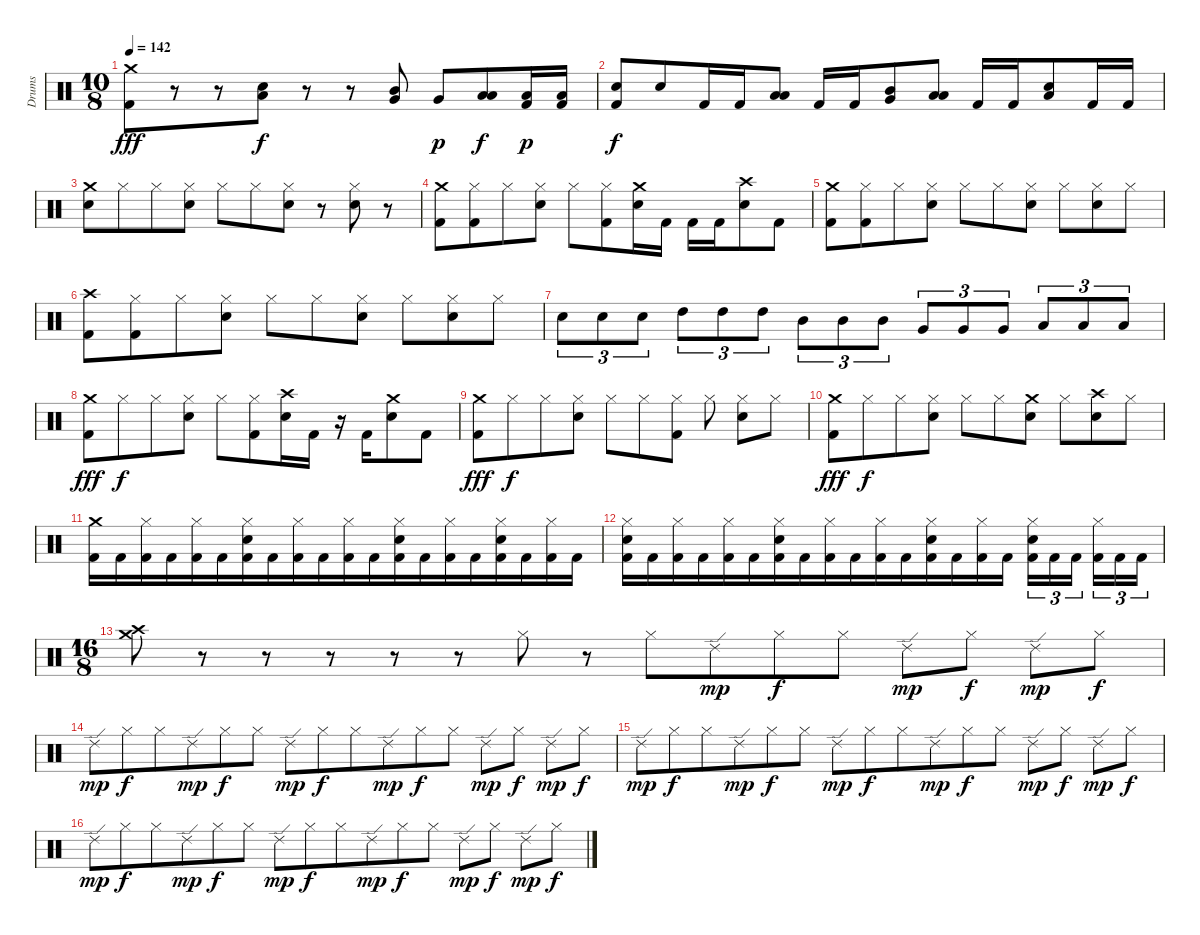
\track ("Drums" "Drums") {instrument percussion}
\staff {score}
\articulation defaults
\ts (10 8)
\tempo 142
\clef neutral
\ks c
("Crash medium (hit)" "Kick (hit) 2").8{dy fff} r.8 r.8 ("Electric Snare (hit)" "Low Floor Tom (hit)").8{dy f} r.8 r.8 ("Mid Tom (hit)" "Very Low Tom (hit)").8 "Very Low Tom (hit)".8{dy p} ("Low Tom (hit)" "Low Floor Tom (hit)").8{dy f} ("Low Floor Tom (hit)" "Kick (hit) 2").16{dy p} ("Low Floor Tom (hit)" "Kick (hit) 2").16 |
("Electric Snare (hit)" "Kick (hit) 2").8{dy f} "Electric Snare (hit)".8 "Kick (hit) 2".16 "Kick (hit) 2".16 ("Low Tom (hit)" "Low Floor Tom (hit)").8 "Kick (hit) 2".16 "Kick (hit) 2".16 ("Mid Tom (hit)" "Very Low Tom (hit)").8 ("Low Tom (hit)" "Low Floor Tom (hit)").8 "Kick (hit) 2".16 "Kick (hit) 2".16 ("Electric Snare (hit)" "Low Floor Tom (hit)").8 "Kick (hit) 2".16 "Kick (hit) 2".16 |
("Crash medium (hit)" "Electric Snare (hit)").8 "Hi-Hat (closed)".8 "Hi-Hat (closed)".8 ("Hi-Hat (closed)" "Electric Snare (hit)").8 "Hi-Hat (closed)".8 "Hi-Hat (closed)".8 ("Hi-Hat (closed)" "Electric Snare (hit)").8 r.8 ("Hi-Hat (closed)" "Electric Snare (hit)").8 r.8 |
("Crash medium (hit)" "Kick (hit) 2").8 ("Hi-Hat (closed)" "Kick (hit) 2").8 "Hi-Hat (closed)".8 ("Hi-Hat (closed)" "Electric Snare (hit)").8 "Hi-Hat (closed)".8 ("Hi-Hat (closed)" "Kick (hit) 2").8 ("Crash medium (hit)" "Electric Snare (hit)").16 "Kick (hit) 2".16 "Kick (hit) 2".16 "Kick (hit) 2".16 ("Crash high (hit)" "Electric Snare (hit)").8 "Kick (hit) 2".8 |
("Crash medium (hit)" "Kick (hit) 2").8 ("Hi-Hat (closed)" "Kick (hit) 2").8 "Hi-Hat (closed)".8 ("Hi-Hat (closed)" "Electric Snare (hit)").8 "Hi-Hat (closed)".8 "Hi-Hat (closed)".8 ("Hi-Hat (closed)" "Electric Snare (hit)").8 "Hi-Hat (closed)".8 ("Hi-Hat (closed)" "Electric Snare (hit)").8 "Hi-Hat (closed)".8 |
("Crash high (hit)" "Kick (hit) 2").8 ("Hi-Hat (closed)" "Kick (hit) 2").8 "Hi-Hat (closed)".8 ("Hi-Hat (closed)" "Electric Snare (hit)").8 "Hi-Hat (closed)".8 "Hi-Hat (closed)".8 ("Hi-Hat (closed)" "Electric Snare (hit)").8 "Hi-Hat (closed)".8 ("Hi-Hat (closed)" "Electric Snare (hit)").8 "Hi-Hat (closed)".8 |
"Electric Snare (hit)".8{tu (3 2)} "Electric Snare (hit)".8{tu (3 2) beam merge} "Electric Snare (hit)".8{tu (3 2)} "High Tom (hit)".8{tu (3 2)} "High Tom (hit)".8{tu (3 2) beam merge} "High Tom (hit)".8{tu (3 2)} "Mid Tom (hit)".8{tu (3 2)} "Mid Tom (hit)".8{tu (3 2) beam merge} "Mid Tom (hit)".8{tu (3 2)} "Very Low Tom (hit)".8{tu (3 2)} "Very Low Tom (hit)".8{tu (3 2) beam merge} "Very Low Tom (hit)".8{tu (3 2)} "Low Floor Tom (hit)".8{tu (3 2)} "Low Floor Tom (hit)".8{tu (3 2) beam merge} "Low Floor Tom (hit)".8{tu (3 2)} |
("Crash medium (hit)" "Kick (hit) 2").8{dy fff} "Hi-Hat (closed)".8{dy f} "Hi-Hat (closed)".8 ("Hi-Hat (closed)" "Electric Snare (hit)").8 "Hi-Hat (closed)".8 ("Hi-Hat (closed)" "Kick (hit) 2").8 ("Crash high (hit)" "Electric Snare (hit)").16 "Kick (hit) 2".16 r.16 "Kick (hit) 2".16 ("Crash medium (hit)" "Electric Snare (hit)").8{beam merge} "Kick (hit) 2".8 |
("Crash medium (hit)" "Kick (hit) 2").8{dy fff} "Hi-Hat (closed)".8{dy f} "Hi-Hat (closed)".8 ("Hi-Hat (closed)" "Electric Snare (hit)").8 "Hi-Hat (closed)".8 "Hi-Hat (closed)".8 ("Hi-Hat (closed)" "Kick (hit) 2").8 "Hi-Hat (closed)".8{beam split} ("Hi-Hat (closed)" "Electric Snare (hit)").8{beam merge} "Hi-Hat (closed)".8 |
("Crash medium (hit)" "Kick (hit) 2").8{dy fff} "Hi-Hat (closed)".8{dy f} "Hi-Hat (closed)".8 ("Hi-Hat (closed)" "Electric Snare (hit)").8 "Hi-Hat (closed)".8 "Hi-Hat (closed)".8 ("Crash medium (hit)" "Electric Snare (hit)").8 "Hi-Hat (closed)".8 ("Crash high (hit)" "Electric Snare (hit)").8 "Hi-Hat (closed)".8 |
("Crash medium (hit)" "Kick (hit) 2").16 "Kick (hit) 2".16{beam merge} ("Hi-Hat (closed)" "Kick (hit) 2").16 "Kick (hit) 2".16{beam merge} ("Hi-Hat (closed)" "Kick (hit) 2").16 "Kick (hit) 2".16 ("Hi-Hat (closed)" "Electric Snare (hit)" "Kick (hit) 2").16 "Kick (hit) 2".16{beam merge} ("Hi-Hat (closed)" "Kick (hit) 2").16 "Kick (hit) 2".16{beam merge} ("Hi-Hat (closed)" "Kick (hit) 2").16 "Kick (hit) 2".16 ("Hi-Hat (closed)" "Electric Snare (hit)" "Kick (hit) 2").16 "Kick (hit) 2".16{beam merge} ("Hi-Hat (closed)" "Kick (hit) 2").16 "Kick (hit) 2".16 ("Hi-Hat (closed)" "Electric Snare (hit)" "Kick (hit) 2").16 "Kick (hit) 2".16{beam merge} ("Hi-Hat (closed)" "Kick (hit) 2").16 "Kick (hit) 2".16 |
("Hi-Hat (closed)" "Electric Snare (hit)" "Kick (hit) 2").16 "Kick (hit) 2".16{beam merge} ("Hi-Hat (closed)" "Kick (hit) 2").16 "Kick (hit) 2".16{beam merge} ("Hi-Hat (closed)" "Kick (hit) 2").16 "Kick (hit) 2".16 ("Hi-Hat (closed)" "Electric Snare (hit)" "Kick (hit) 2").16 "Kick (hit) 2".16{beam merge} ("Hi-Hat (closed)" "Kick (hit) 2").16 "Kick (hit) 2".16{beam merge} ("Hi-Hat (closed)" "Kick (hit) 2").16 "Kick (hit) 2".16 ("Hi-Hat (closed)" "Electric Snare (hit)" "Kick (hit) 2").16 "Kick (hit) 2".16{beam merge} ("Hi-Hat (closed)" "Kick (hit) 2").16 "Kick (hit) 2".16 ("Hi-Hat (closed)" "Electric Snare (hit)" "Kick (hit) 2").16{tu (3 2)} "Kick (hit) 2".16{tu (3 2)} "Kick (hit) 2".16{tu (3 2) beam splitsecondary} ("Hi-Hat (closed)" "Kick (hit) 2").16{tu (3 2)} "Kick (hit) 2".16{tu (3 2)} "Kick (hit) 2".16{tu (3 2)} |
\ts (16 8)
("Crash medium (hit)" "Crash high (hit)").8 r.8 r.8 r.8 r.8 r.8 "Hi-Hat (closed)".8 r.8 "Hi-Hat (closed)".8 "Ride (edge) 2".8{dy mp beam merge} "Hi-Hat (closed)".8{dy f beam merge} "Hi-Hat (closed)".8 "Ride (edge) 2".8{dy mp beam merge} "Hi-Hat (closed)".8{dy f} "Ride (edge) 2".8{dy mp beam merge} "Hi-Hat (closed)".8{dy f} |
"Ride (edge) 2".8{dy mp beam merge} "Hi-Hat (closed)".8{dy f beam merge} "Hi-Hat (closed)".8 "Ride (edge) 2".8{dy mp beam merge} "Hi-Hat (closed)".8{dy f beam merge} "Hi-Hat (closed)".8 "Ride (edge) 2".8{dy mp beam merge} "Hi-Hat (closed)".8{dy f beam merge} "Hi-Hat (closed)".8 "Ride (edge) 2".8{dy mp beam merge} "Hi-Hat (closed)".8{dy f beam merge} "Hi-Hat (closed)".8 "Ride (edge) 2".8{dy mp beam merge} "Hi-Hat (closed)".8{dy f} "Ride (edge) 2".8{dy mp beam merge} "Hi-Hat (closed)".8{dy f} |
"Ride (edge) 2".8{dy mp beam merge} "Hi-Hat (closed)".8{dy f beam merge} "Hi-Hat (closed)".8 "Ride (edge) 2".8{dy mp beam merge} "Hi-Hat (closed)".8{dy f beam merge} "Hi-Hat (closed)".8 "Ride (edge) 2".8{dy mp beam merge} "Hi-Hat (closed)".8{dy f beam merge} "Hi-Hat (closed)".8 "Ride (edge) 2".8{dy mp beam merge} "Hi-Hat (closed)".8{dy f beam merge} "Hi-Hat (closed)".8 "Ride (edge) 2".8{dy mp beam merge} "Hi-Hat (closed)".8{dy f} "Ride (edge) 2".8{dy mp beam merge} "Hi-Hat (closed)".8{dy f} |
"Ride (edge) 2".8{dy mp beam merge} "Hi-Hat (closed)".8{dy f beam merge} "Hi-Hat (closed)".8 "Ride (edge) 2".8{dy mp beam merge} "Hi-Hat (closed)".8{dy f beam merge} "Hi-Hat (closed)".8 "Ride (edge) 2".8{dy mp beam merge} "Hi-Hat (closed)".8{dy f beam merge} "Hi-Hat (closed)".8 "Ride (edge) 2".8{dy mp beam merge} "Hi-Hat (closed)".8{dy f beam merge} "Hi-Hat (closed)".8 "Ride (edge) 2".8{dy mp beam merge} "Hi-Hat (closed)".8{dy f} "Ride (edge) 2".8{dy mp beam merge} "Hi-Hat (closed)".8{dy f}
